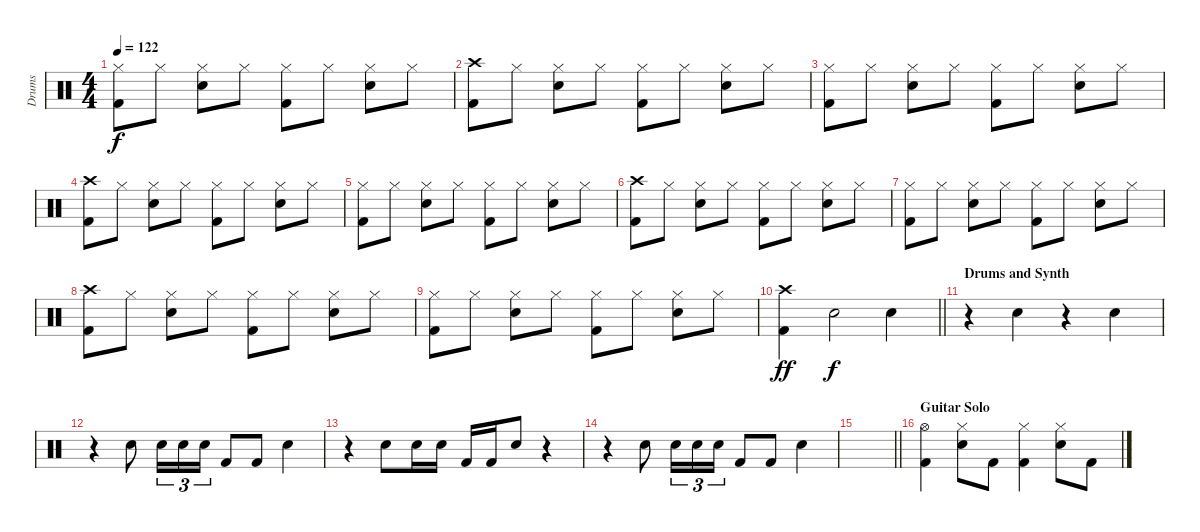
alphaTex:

\track ("Drums" "Drums") {instrument percussion}
\staff {score}
\articulation defaults
\ts (4 4)
\tempo 122
\clef neutral
\ks c
("Hi-Hat (closed)" "Kick (hit) 2").8{dy f} "Hi-Hat (closed)".8 ("Hi-Hat (closed)" "Snare (hit) 2").8 "Hi-Hat (closed)".8 ("Hi-Hat (closed)" "Kick (hit) 2").8 "Hi-Hat (closed)".8 ("Hi-Hat (closed)" "Snare (hit) 2").8 "Hi-Hat (closed)".8 |
("Crash high (hit)" "Kick (hit) 2").8 "Hi-Hat (closed)".8 ("Hi-Hat (closed)" "Snare (hit) 2").8 "Hi-Hat (closed)".8 ("Hi-Hat (closed)" "Kick (hit) 2").8 "Hi-Hat (closed)".8 ("Hi-Hat (closed)" "Snare (hit) 2").8 "Hi-Hat (closed)".8 |
("Hi-Hat (closed)" "Kick (hit) 2").8 "Hi-Hat (closed)".8 ("Hi-Hat (closed)" "Snare (hit) 2").8 "Hi-Hat (closed)".8 ("Hi-Hat (closed)" "Kick (hit) 2").8 "Hi-Hat (closed)".8 ("Hi-Hat (closed)" "Snare (hit) 2").8 "Hi-Hat (closed)".8 |
("Crash high (hit)" "Kick (hit) 2").8 "Hi-Hat (closed)".8 ("Hi-Hat (closed)" "Snare (hit) 2").8 "Hi-Hat (closed)".8 ("Hi-Hat (closed)" "Kick (hit) 2").8 "Hi-Hat (closed)".8 ("Hi-Hat (closed)" "Snare (hit) 2").8 "Hi-Hat (closed)".8 |
("Hi-Hat (closed)" "Kick (hit) 2").8 "Hi-Hat (closed)".8 ("Hi-Hat (closed)" "Snare (hit) 2").8 "Hi-Hat (closed)".8 ("Hi-Hat (closed)" "Kick (hit) 2").8 "Hi-Hat (closed)".8 ("Hi-Hat (closed)" "Snare (hit) 2").8 "Hi-Hat (closed)".8 |
("Crash high (hit)" "Kick (hit) 2").8 "Hi-Hat (closed)".8 ("Hi-Hat (closed)" "Snare (hit) 2").8 "Hi-Hat (closed)".8 ("Hi-Hat (closed)" "Kick (hit) 2").8 "Hi-Hat (closed)".8 ("Hi-Hat (closed)" "Snare (hit) 2").8 "Hi-Hat (closed)".8 |
("Hi-Hat (closed)" "Kick (hit) 2").8 "Hi-Hat (closed)".8 ("Hi-Hat (closed)" "Snare (hit) 2").8 "Hi-Hat (closed)".8 ("Hi-Hat (closed)" "Kick (hit) 2").8 "Hi-Hat (closed)".8 ("Hi-Hat (closed)" "Snare (hit) 2").8 "Hi-Hat (closed)".8 |
("Crash high (hit)" "Kick (hit) 2").8 "Hi-Hat (closed)".8 ("Hi-Hat (closed)" "Snare (hit) 2").8 "Hi-Hat (closed)".8 ("Hi-Hat (closed)" "Kick (hit) 2").8 "Hi-Hat (closed)".8 ("Hi-Hat (closed)" "Snare (hit) 2").8 "Hi-Hat (closed)".8 |
("Hi-Hat (closed)" "Kick (hit) 2").8 "Hi-Hat (closed)".8 ("Hi-Hat (closed)" "Snare (hit) 2").8 "Hi-Hat (closed)".8 ("Hi-Hat (closed)" "Kick (hit) 2").8 "Hi-Hat (closed)".8 ("Hi-Hat (closed)" "Snare (hit) 2").8 "Hi-Hat (closed)".8 |
\barLineRight lightlight
("Crash high (hit)" "Kick (hit) 2").4{dy ff} "Hand Clap (hit)".2{dy f} "Hand Clap (hit)".4 |
\section ("" "Drums and Synth")
r.4 "Hand Clap (hit)".4 r.4 "Hand Clap (hit)".4 |
r.4 "Snare (hit) 2".8 "Snare (hit) 2".16{tu (3 2)} "Snare (hit) 2".16{tu (3 2)} "Snare (hit) 2".16{tu (3 2)} "Kick (hit) 2".8 "Kick (hit) 2".8 "Hand Clap (hit)".4 |
r.4 "Snare (hit) 2".8 "Snare (hit) 2".16 "Snare (hit) 2".16 "Kick (hit) 2".16 "Kick (hit) 2".16 "Snare (hit) 2".8 r.4 |
r.4 "Snare (hit) 2".8 "Snare (hit) 2".16{tu (3 2)} "Snare (hit) 2".16{tu (3 2)} "Snare (hit) 2".16{tu (3 2)} "Kick (hit) 2".8 "Kick (hit) 2".8 "Hand Clap (hit)".4 |
\barLineRight lightlight
|
\section ("" "Guitar Solo")
("Hi-Hat (open)" "Kick (hit) 2").4 ("Hi-Hat (closed)" "Snare (hit) 2").8 "Kick (hit) 2".8 ("Hi-Hat (closed)" "Kick (hit) 2").4 ("Hi-Hat (closed)" "Snare (hit) 2").8 "Kick (hit) 2".8
